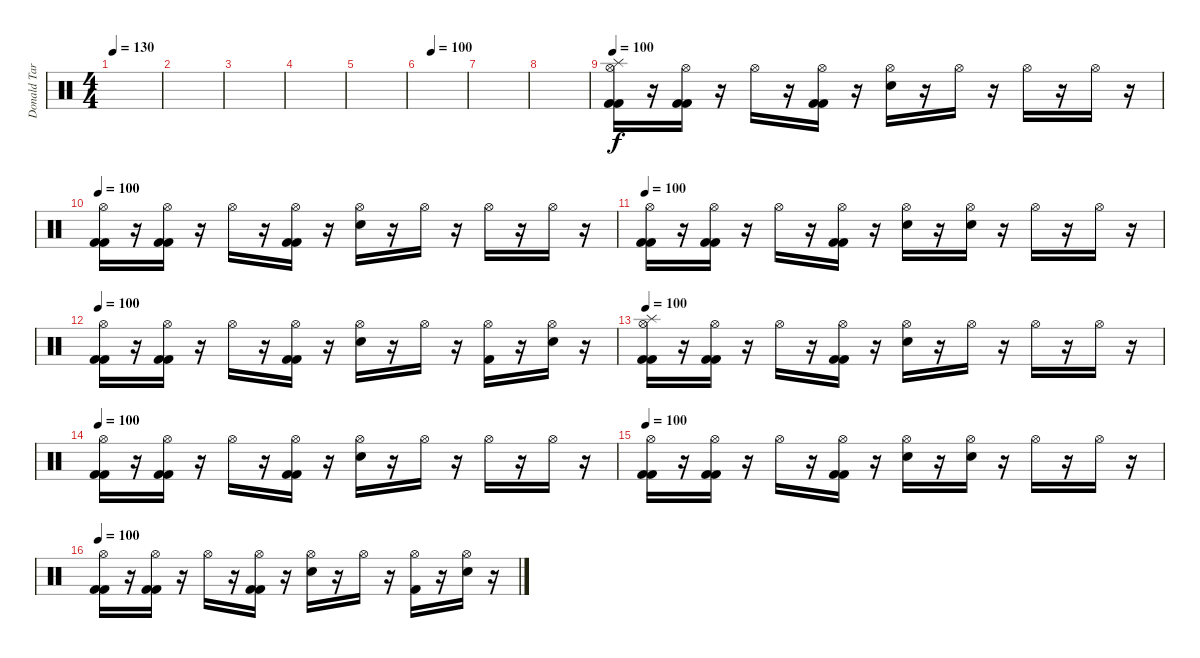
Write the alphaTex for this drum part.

\track ("Donald Tardy" "Donald Tar") {instrument percussion}
\staff {score}
\articulation defaults
\ts (4 4)
\tempo 130
\tempo 100
\tempo 130
\clef neutral
\ks c
|
|
|
|
|
\tempo (100 0.25)
|
|
|
\tempo 100
("Hi-Hat (open)" "Splash (hit)" "Kick (hit) 2" "Kick (hit) 2").16 r.16 ("Hi-Hat (open)" "Kick (hit) 2" "Kick (hit) 2").16 r.16 "Hi-Hat (open)".16 r.16 ("Hi-Hat (open)" "Kick (hit) 2" "Kick (hit) 2").16 r.16 ("Hi-Hat (open)" "Electric Snare (hit)").16 r.16 "Hi-Hat (open)".16 r.16 "Hi-Hat (open)".16 r.16 "Hi-Hat (open)".16 r.16 |
\tempo 100
("Hi-Hat (open)" "Kick (hit) 2" "Kick (hit) 2").16 r.16 ("Hi-Hat (open)" "Kick (hit) 2" "Kick (hit) 2").16 r.16 "Hi-Hat (open)".16 r.16 ("Hi-Hat (open)" "Kick (hit) 2" "Kick (hit) 2").16 r.16 ("Hi-Hat (open)" "Electric Snare (hit)").16 r.16 "Hi-Hat (open)".16 r.16 "Hi-Hat (open)".16 r.16 "Hi-Hat (open)".16 r.16 |
\tempo 100
("Hi-Hat (open)" "Kick (hit) 2" "Kick (hit) 2").16 r.16 ("Hi-Hat (open)" "Kick (hit) 2" "Kick (hit) 2").16 r.16 "Hi-Hat (open)".16 r.16 ("Hi-Hat (open)" "Kick (hit) 2" "Kick (hit) 2").16 r.16 ("Hi-Hat (open)" "Electric Snare (hit)").16 r.16 ("Hi-Hat (open)" "Electric Snare (hit)").16 r.16 "Hi-Hat (open)".16 r.16 "Hi-Hat (open)".16 r.16 |
\tempo 100
("Hi-Hat (open)" "Kick (hit) 2" "Kick (hit) 2").16 r.16 ("Hi-Hat (open)" "Kick (hit) 2" "Kick (hit) 2").16 r.16 "Hi-Hat (open)".16 r.16 ("Hi-Hat (open)" "Kick (hit) 2" "Kick (hit) 2").16 r.16 ("Hi-Hat (open)" "Electric Snare (hit)").16 r.16 "Hi-Hat (open)".16 r.16 ("Hi-Hat (open)" "Kick (hit) 2").16 r.16 ("Hi-Hat (open)" "Electric Snare (hit)").16 r.16 |
\tempo 100
("Hi-Hat (open)" "Splash (hit)" "Kick (hit) 2" "Kick (hit) 2").16 r.16 ("Hi-Hat (open)" "Kick (hit) 2" "Kick (hit) 2").16 r.16 "Hi-Hat (open)".16 r.16 ("Hi-Hat (open)" "Kick (hit) 2" "Kick (hit) 2").16 r.16 ("Hi-Hat (open)" "Electric Snare (hit)").16 r.16 "Hi-Hat (open)".16 r.16 "Hi-Hat (open)".16 r.16 "Hi-Hat (open)".16 r.16 |
\tempo 100
("Hi-Hat (open)" "Kick (hit) 2" "Kick (hit) 2").16 r.16 ("Hi-Hat (open)" "Kick (hit) 2" "Kick (hit) 2").16 r.16 "Hi-Hat (open)".16 r.16 ("Hi-Hat (open)" "Kick (hit) 2" "Kick (hit) 2").16 r.16 ("Hi-Hat (open)" "Electric Snare (hit)").16 r.16 "Hi-Hat (open)".16 r.16 "Hi-Hat (open)".16 r.16 "Hi-Hat (open)".16 r.16 |
\tempo 100
("Hi-Hat (open)" "Kick (hit) 2" "Kick (hit) 2").16 r.16 ("Hi-Hat (open)" "Kick (hit) 2" "Kick (hit) 2").16 r.16 "Hi-Hat (open)".16 r.16 ("Hi-Hat (open)" "Kick (hit) 2" "Kick (hit) 2").16 r.16 ("Hi-Hat (open)" "Electric Snare (hit)").16 r.16 ("Hi-Hat (open)" "Electric Snare (hit)").16 r.16 "Hi-Hat (open)".16 r.16 "Hi-Hat (open)".16 r.16 |
\tempo 100
("Hi-Hat (open)" "Kick (hit) 2" "Kick (hit) 2").16 r.16 ("Hi-Hat (open)" "Kick (hit) 2" "Kick (hit) 2").16 r.16 "Hi-Hat (open)".16 r.16 ("Hi-Hat (open)" "Kick (hit) 2" "Kick (hit) 2").16 r.16 ("Hi-Hat (open)" "Electric Snare (hit)").16 r.16 "Hi-Hat (open)".16 r.16 ("Hi-Hat (open)" "Kick (hit) 2").16 r.16 ("Hi-Hat (open)" "Electric Snare (hit)").16 r.16
